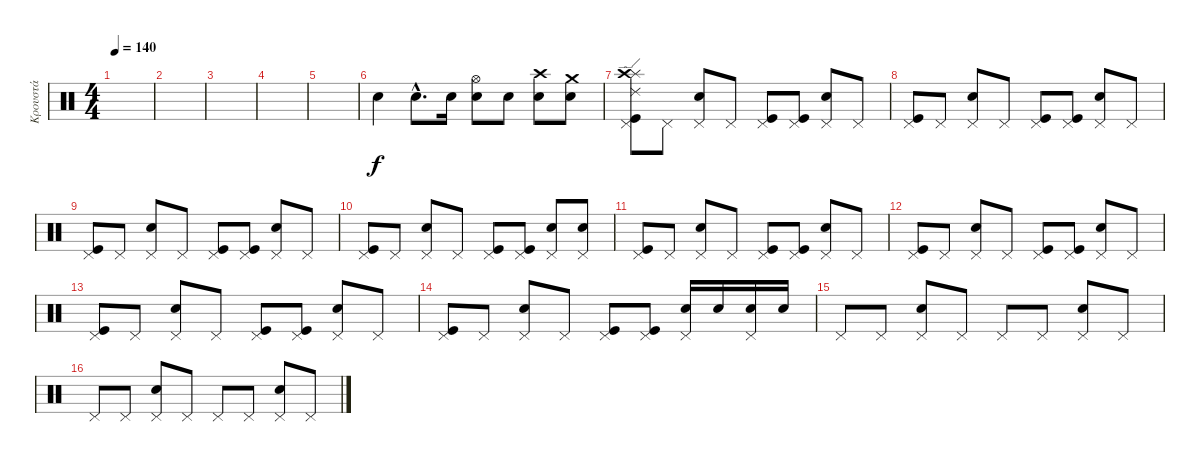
\track ("Κρουστά" "Κρουστά") {instrument percussion}
\staff {score}
\articulation defaults
\ts (4 4)
\tempo 140
\clef neutral
\ks c
|
|
|
|
|
"Snare (hit) 2".4 "Snare (hit) 2"{hac}.8{d} "Snare (hit) 2".16 ("Hi-Hat (open)" "Snare (hit) 2").8 "Snare (hit) 2".8 ("Crash high (hit)" "Snare (hit) 2").8 ("Crash medium (hit)" "Snare (hit) 2").8 |
("Splash (hit)" "Pedal Hi-Hat (hit)" "Ride (edge) 2" "Crash high (hit)" "Kick (hit)").8 "Pedal Hi-Hat (hit)".8 ("Pedal Hi-Hat (hit)" "Snare (hit) 2").8 "Pedal Hi-Hat (hit)".8 ("Pedal Hi-Hat (hit)" "Kick (hit)").8 ("Pedal Hi-Hat (hit)" "Kick (hit)").8 ("Pedal Hi-Hat (hit)" "Snare (hit) 2").8 "Pedal Hi-Hat (hit)".8 |
("Pedal Hi-Hat (hit)" "Kick (hit)").8 "Pedal Hi-Hat (hit)".8 ("Pedal Hi-Hat (hit)" "Snare (hit) 2").8 "Pedal Hi-Hat (hit)".8 ("Pedal Hi-Hat (hit)" "Kick (hit)").8 ("Pedal Hi-Hat (hit)" "Kick (hit)").8 ("Pedal Hi-Hat (hit)" "Snare (hit) 2").8 "Pedal Hi-Hat (hit)".8 |
("Pedal Hi-Hat (hit)" "Kick (hit)").8 "Pedal Hi-Hat (hit)".8 ("Pedal Hi-Hat (hit)" "Snare (hit) 2").8 "Pedal Hi-Hat (hit)".8 ("Pedal Hi-Hat (hit)" "Kick (hit)").8 ("Pedal Hi-Hat (hit)" "Kick (hit)").8 ("Pedal Hi-Hat (hit)" "Snare (hit) 2").8 "Pedal Hi-Hat (hit)".8 |
("Pedal Hi-Hat (hit)" "Kick (hit)").8 "Pedal Hi-Hat (hit)".8 ("Pedal Hi-Hat (hit)" "Snare (hit) 2").8 "Pedal Hi-Hat (hit)".8 ("Pedal Hi-Hat (hit)" "Kick (hit)").8 ("Pedal Hi-Hat (hit)" "Kick (hit)").8 ("Pedal Hi-Hat (hit)" "Snare (hit) 2").8 ("Pedal Hi-Hat (hit)" "Snare (hit) 2").8 |
("Pedal Hi-Hat (hit)" "Kick (hit)").8 "Pedal Hi-Hat (hit)".8 ("Pedal Hi-Hat (hit)" "Snare (hit) 2").8 "Pedal Hi-Hat (hit)".8 ("Pedal Hi-Hat (hit)" "Kick (hit)").8 ("Pedal Hi-Hat (hit)" "Kick (hit)").8 ("Pedal Hi-Hat (hit)" "Snare (hit) 2").8 "Pedal Hi-Hat (hit)".8 |
("Pedal Hi-Hat (hit)" "Kick (hit)").8 "Pedal Hi-Hat (hit)".8 ("Pedal Hi-Hat (hit)" "Snare (hit) 2").8 "Pedal Hi-Hat (hit)".8 ("Pedal Hi-Hat (hit)" "Kick (hit)").8 ("Pedal Hi-Hat (hit)" "Kick (hit)").8 ("Pedal Hi-Hat (hit)" "Snare (hit) 2").8 "Pedal Hi-Hat (hit)".8 |
("Pedal Hi-Hat (hit)" "Kick (hit)").8 "Pedal Hi-Hat (hit)".8 ("Pedal Hi-Hat (hit)" "Snare (hit) 2").8 "Pedal Hi-Hat (hit)".8 ("Pedal Hi-Hat (hit)" "Kick (hit)").8 ("Pedal Hi-Hat (hit)" "Kick (hit)").8 ("Pedal Hi-Hat (hit)" "Snare (hit) 2").8 "Pedal Hi-Hat (hit)".8 |
("Pedal Hi-Hat (hit)" "Kick (hit)").8 "Pedal Hi-Hat (hit)".8 ("Pedal Hi-Hat (hit)" "Snare (hit) 2").8 "Pedal Hi-Hat (hit)".8 ("Pedal Hi-Hat (hit)" "Kick (hit)").8 ("Pedal Hi-Hat (hit)" "Kick (hit)").8 ("Pedal Hi-Hat (hit)" "Snare (hit) 2").16 "Snare (hit) 2".16 ("Pedal Hi-Hat (hit)" "Snare (hit) 2").16 "Snare (hit) 2".16 |
"Pedal Hi-Hat (hit)".8 "Pedal Hi-Hat (hit)".8 ("Pedal Hi-Hat (hit)" "Snare (hit) 2").8 "Pedal Hi-Hat (hit)".8 "Pedal Hi-Hat (hit)".8 "Pedal Hi-Hat (hit)".8 ("Pedal Hi-Hat (hit)" "Snare (hit) 2").8 "Pedal Hi-Hat (hit)".8 |
"Pedal Hi-Hat (hit)".8 "Pedal Hi-Hat (hit)".8 ("Pedal Hi-Hat (hit)" "Snare (hit) 2").8 "Pedal Hi-Hat (hit)".8 "Pedal Hi-Hat (hit)".8 "Pedal Hi-Hat (hit)".8 ("Pedal Hi-Hat (hit)" "Snare (hit) 2").8 "Pedal Hi-Hat (hit)".8
